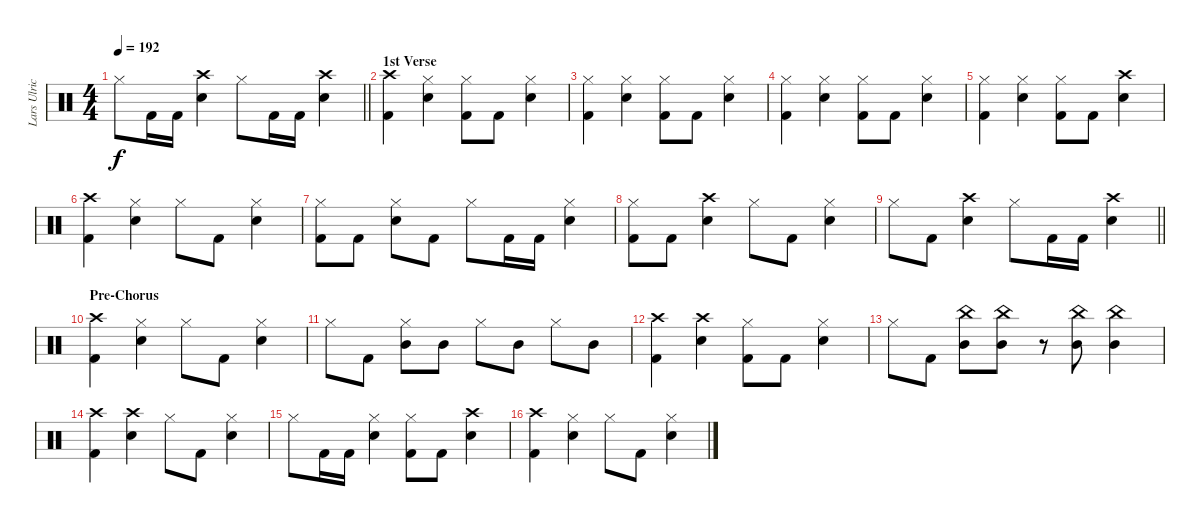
\track ("Lars Ulrich - Drums" "Lars Ulric") {instrument percussion}
\staff {score}
\articulation defaults
\ts (4 4)
\tempo 192
\clef neutral
\barLineRight lightlight
\ks c "Hi-Hat (closed)".8{dy f} "Kick (hit) 2".16 "Kick (hit) 2".16
("Crash high (hit)" "Snare (hit) 2").4 "Hi-Hat (closed)".8 "Kick (hit) 2".16 "Kick (hit) 2".16 ("Crash high (hit)" "Snare (hit) 2").4 |
\section ("" "1st Verse")
("Crash high (hit)" "Kick (hit) 2").4 ("Hi-Hat (closed)" "Snare (hit) 2").4 ("Hi-Hat (closed)" "Kick (hit) 2").8 "Kick (hit) 2".8 ("Hi-Hat (closed)" "Snare (hit) 2").4 |
("Hi-Hat (closed)" "Kick (hit) 2").4 ("Hi-Hat (closed)" "Snare (hit) 2").4 ("Hi-Hat (closed)" "Kick (hit) 2").8 "Kick (hit) 2".8 ("Hi-Hat (closed)" "Snare (hit) 2").4 |
("Hi-Hat (closed)" "Kick (hit) 2").4 ("Hi-Hat (closed)" "Snare (hit) 2").4 ("Hi-Hat (closed)" "Kick (hit) 2").8 "Kick (hit) 2".8 ("Hi-Hat (closed)" "Snare (hit) 2").4 |
("Hi-Hat (closed)" "Kick (hit) 2").4 ("Hi-Hat (closed)" "Snare (hit) 2").4 ("Hi-Hat (closed)" "Kick (hit) 2").8 "Kick (hit) 2".8 ("Crash high (hit)" "Snare (hit) 2").4 |
("Crash high (hit)" "Kick (hit) 2").4 ("Hi-Hat (closed)" "Snare (hit) 2").4 "Hi-Hat (closed)".8 "Kick (hit) 2".8 ("Hi-Hat (closed)" "Snare (hit) 2").4 |
("Hi-Hat (closed)" "Kick (hit) 2").8 "Kick (hit) 2".8 ("Hi-Hat (closed)" "Snare (hit) 2").8 "Kick (hit) 2".8 "Hi-Hat (closed)".8 "Kick (hit) 2".16 "Kick (hit) 2".16 ("Hi-Hat (closed)" "Snare (hit) 2").4 |
("Hi-Hat (closed)" "Kick (hit) 2").8 "Kick (hit) 2".8 ("Crash high (hit)" "Snare (hit) 2").4 "Hi-Hat (closed)".8 "Kick (hit) 2".8 ("Hi-Hat (closed)" "Snare (hit) 2").4 |
\barLineRight lightlight "Hi-Hat (closed)".8 "Kick (hit) 2".8
("Crash high (hit)" "Snare (hit) 2").4 "Hi-Hat (closed)".8 "Kick (hit) 2".16 "Kick (hit) 2".16 ("Crash high (hit)" "Snare (hit) 2").4 |
\section ("" "Pre-Chorus")
("Crash high (hit)" "Kick (hit) 2").4 ("Hi-Hat (closed)" "Snare (hit) 2").4 "Hi-Hat (closed)".8 "Kick (hit) 2".8 ("Hi-Hat (closed)" "Snare (hit) 2").4 |
"Hi-Hat (closed)".8 "Kick (hit) 2".8 ("Hi-Hat (closed)" "Mid Tom (hit)").8 "Mid Tom (hit)".8 "Hi-Hat (closed)".8 "Mid Tom (hit)".8 "Hi-Hat (closed)".8 "Mid Tom (hit)".8 |
("Crash high (hit)" "Kick (hit) 2").4 ("Crash high (hit)" "Snare (hit) 2").4 ("Hi-Hat (closed)" "Kick (hit) 2").8 "Kick (hit) 2".8 ("Hi-Hat (closed)" "Snare (hit) 2").4 |
"Hi-Hat (closed)".8 "Kick (hit) 2".8 ("China (hit)" "Mid Tom (hit)").8 ("China (hit)" "Mid Tom (hit)").8 r.8 ("China (hit)" "Mid Tom (hit)").8 ("China (hit)" "Mid Tom (hit)").4 |
("Crash high (hit)" "Kick (hit) 2").4 ("Crash high (hit)" "Snare (hit) 2").4 "Hi-Hat (closed)".8 "Kick (hit) 2".8 ("Hi-Hat (closed)" "Snare (hit) 2").4 |
"Hi-Hat (closed)".8 "Kick (hit) 2".16 "Kick (hit) 2".16 ("Hi-Hat (closed)" "Snare (hit) 2").4 ("Hi-Hat (closed)" "Kick (hit) 2").8 "Kick (hit) 2".8 ("Crash high (hit)" "Snare (hit) 2").4 |
("Crash high (hit)" "Kick (hit) 2").4 ("Hi-Hat (closed)" "Snare (hit) 2").4 "Hi-Hat (closed)".8 "Kick (hit) 2".8 ("Hi-Hat (closed)" "Snare (hit) 2").4
